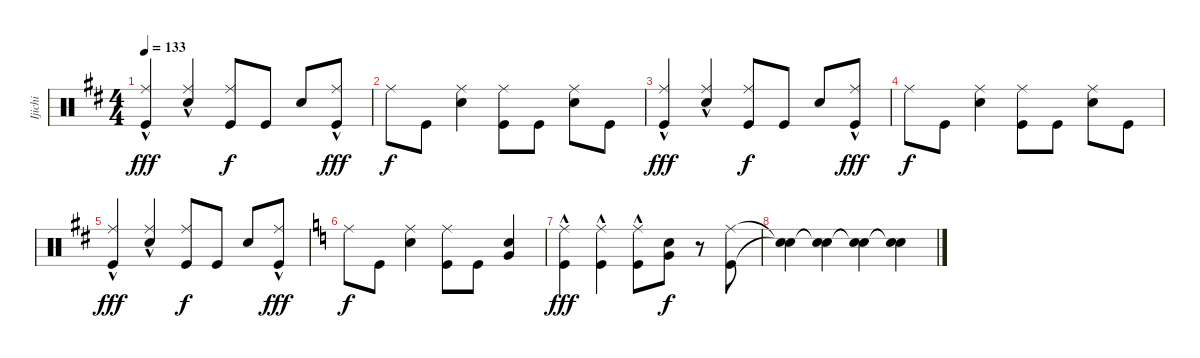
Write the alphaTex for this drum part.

\track ("Ijichi" "Ijichi") {instrument percussion}
\staff {score}
\articulation defaults
\ts (4 4)
\tempo 133
\clef neutral
\ks d
("Ride (middle)"{hac} "Kick (hit)").4{dy fff beam Up} ("Ride (middle)"{hac} "Snare (hit) 2").4{beam Up} ("Ride (middle)" "Kick (hit)").8{dy f beam Up} "Kick (hit)".8{beam Up} "Snare (hit) 2".8{beam Up} ("Ride (middle)"{hac} "Kick (hit)").8{dy fff} |
"Ride (middle)".8{dy f} "Kick (hit)".8 ("Ride (middle)" "Snare (hit) 2").4 ("Ride (middle)" "Kick (hit)").8 "Kick (hit)".8 ("Ride (middle)" "Snare (hit) 2").8 "Kick (hit)".8 |
("Ride (middle)"{hac} "Kick (hit)").4{dy fff beam Up} ("Ride (middle)"{hac} "Snare (hit) 2").4{beam Up} ("Ride (middle)" "Kick (hit)").8{dy f beam Up} "Kick (hit)".8{beam Up} "Snare (hit) 2".8{beam Up} ("Ride (middle)"{hac} "Kick (hit)").8{dy fff} |
"Ride (middle)".8{dy f} "Kick (hit)".8 ("Ride (middle)" "Snare (hit) 2").4 ("Ride (middle)" "Kick (hit)").8 "Kick (hit)".8 ("Ride (middle)" "Snare (hit) 2").8 "Kick (hit)".8 |
("Ride (middle)"{hac} "Kick (hit)").4{dy fff beam Up} ("Ride (middle)"{hac} "Snare (hit) 2").4{beam Up} ("Ride (middle)" "Kick (hit)").8{dy f beam Up} "Kick (hit)".8{beam Up} "Snare (hit) 2".8{beam Up} ("Ride (middle)"{hac} "Kick (hit)").8{dy fff} |
\ks c "Ride (middle)".8{dy f} "Kick (hit)".8
("Ride (middle)" "Snare (hit) 2").4 ("Ride (middle)" "Kick (hit)").8 "Kick (hit)".8 ("Very Low Tom (hit)" "Snare (hit) 2").4 |
("Ride (middle)"{hac} "Kick (hit)").4{dy fff} ("Ride (middle)"{hac} "Kick (hit)").4 ("Ride (middle)"{hac} "Kick (hit)").8 ("Snare (hit) 2" "Very Low Tom (hit)").8{dy f} r.8 ("Ride (middle)" "Kick (hit)").8 |
("Snare (hit)"{t} "Snare (hit)"{t}).4 ("Snare (hit)"{t} "Snare (hit)"{t}).4 ("Snare (hit)"{t} "Snare (hit)"{t}).4 ("Snare (hit)"{t} "Snare (hit)"{t}).4
